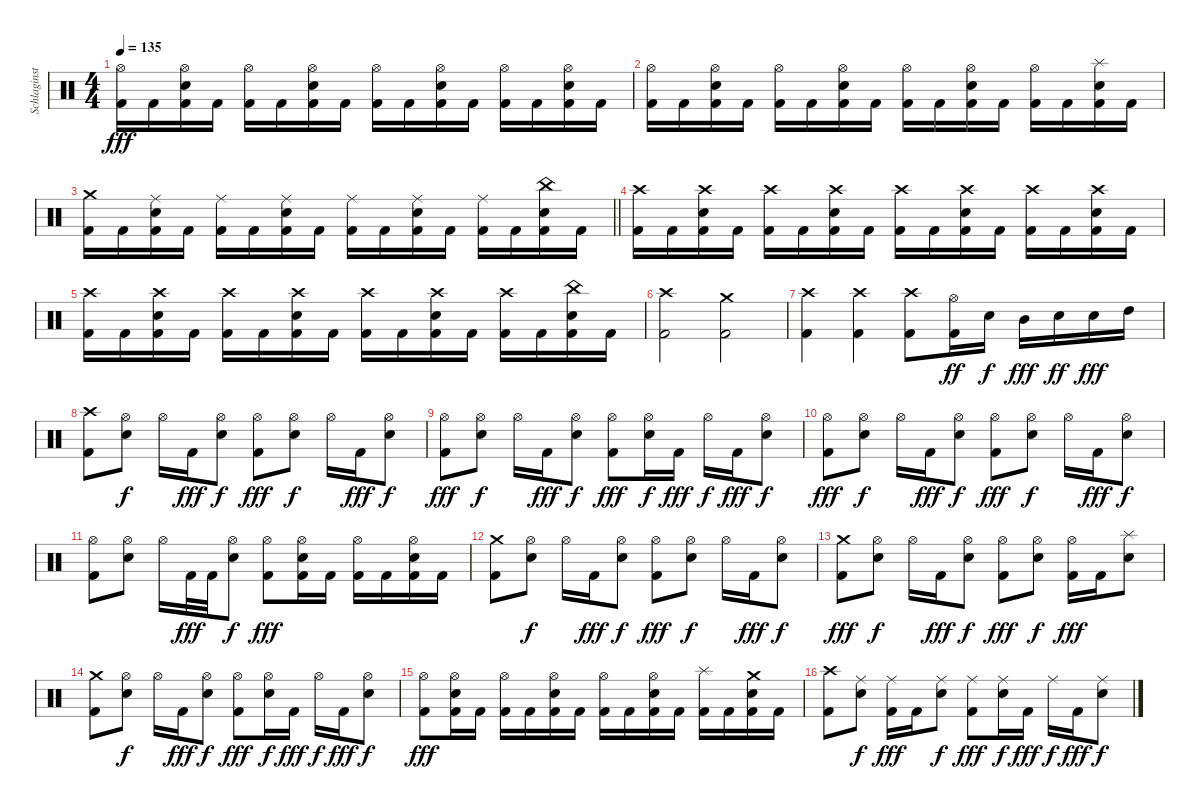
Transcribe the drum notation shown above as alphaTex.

\track ("Schlaginstrumente - Auswahl" "Schlaginst") {instrument percussion}
\staff {score}
\articulation defaults
\ts (4 4)
\tempo 135
\clef neutral
\ks c
("Hi-Hat (open)" "Kick (hit) 2").16{dy fff} "Kick (hit) 2".16 ("Hi-Hat (open)" "Snare (hit) 2" "Kick (hit) 2").16 "Kick (hit) 2".16 ("Hi-Hat (open)" "Kick (hit) 2").16 "Kick (hit) 2".16 ("Hi-Hat (open)" "Snare (hit) 2" "Kick (hit) 2").16 "Kick (hit) 2".16 ("Hi-Hat (open)" "Kick (hit) 2").16 "Kick (hit) 2".16 ("Hi-Hat (open)" "Snare (hit) 2" "Kick (hit) 2").16 "Kick (hit) 2".16 ("Hi-Hat (open)" "Kick (hit) 2").16 "Kick (hit) 2".16 ("Hi-Hat (open)" "Snare (hit) 2" "Kick (hit) 2").16 "Kick (hit) 2".16 |
("Hi-Hat (open)" "Kick (hit) 2").16 "Kick (hit) 2".16 ("Hi-Hat (open)" "Snare (hit) 2" "Kick (hit) 2").16 "Kick (hit) 2".16 ("Hi-Hat (open)" "Kick (hit) 2").16 "Kick (hit) 2".16 ("Hi-Hat (open)" "Snare (hit) 2" "Kick (hit) 2").16 "Kick (hit) 2".16 ("Hi-Hat (open)" "Kick (hit) 2").16 "Kick (hit) 2".16 ("Hi-Hat (open)" "Snare (hit) 2" "Kick (hit) 2").16 "Kick (hit) 2".16 ("Hi-Hat (open)" "Kick (hit) 2").16 "Kick (hit) 2".16 ("Splash (hit)" "Snare (hit) 2" "Kick (hit) 2").16 "Kick (hit) 2".16 |
\barLineRight lightlight
("Crash medium (hit)" "Kick (hit) 2").16 "Kick (hit) 2".16 ("Ride (middle)" "Snare (hit) 2" "Kick (hit) 2").16 "Kick (hit) 2".16 ("Ride (middle)" "Kick (hit) 2").16 "Kick (hit) 2".16 ("Ride (middle)" "Snare (hit) 2" "Kick (hit) 2").16 "Kick (hit) 2".16 ("Ride (middle)" "Kick (hit) 2").16 "Kick (hit) 2".16 ("Ride (middle)" "Snare (hit) 2" "Kick (hit) 2").16 "Kick (hit) 2".16 ("Ride (middle)" "Kick (hit) 2").16 "Kick (hit) 2".16 ("China (hit)" "Snare (hit) 2" "Kick (hit) 2").16 "Kick (hit) 2".16 |
("Crash high (hit)" "Kick (hit) 2").16 "Kick (hit) 2".16 ("Crash high (hit)" "Snare (hit) 2" "Kick (hit) 2").16 "Kick (hit) 2".16 ("Crash high (hit)" "Kick (hit) 2").16 "Kick (hit) 2".16 ("Crash high (hit)" "Snare (hit) 2" "Kick (hit) 2").16 "Kick (hit) 2".16 ("Crash high (hit)" "Kick (hit) 2").16 "Kick (hit) 2".16 ("Crash high (hit)" "Snare (hit) 2" "Kick (hit) 2").16 "Kick (hit) 2".16 ("Crash high (hit)" "Kick (hit) 2").16 "Kick (hit) 2".16 ("Crash high (hit)" "Snare (hit) 2" "Kick (hit) 2").16 "Kick (hit) 2".16 |
("Crash high (hit)" "Kick (hit) 2").16 "Kick (hit) 2".16 ("Crash high (hit)" "Snare (hit) 2" "Kick (hit) 2").16 "Kick (hit) 2".16 ("Crash high (hit)" "Kick (hit) 2").16 "Kick (hit) 2".16 ("Crash high (hit)" "Snare (hit) 2" "Kick (hit) 2").16 "Kick (hit) 2".16 ("Crash high (hit)" "Kick (hit) 2").16 "Kick (hit) 2".16 ("Crash high (hit)" "Snare (hit) 2" "Kick (hit) 2").16 "Kick (hit) 2".16 ("Crash high (hit)" "Kick (hit) 2").16 "Kick (hit) 2".16 ("China (hit)" "Snare (hit) 2" "Kick (hit) 2").16 "Kick (hit) 2".16 |
("Crash high (hit)" "Kick (hit) 2").2 ("Crash medium (hit)" "Kick (hit) 2").2 |
("Crash high (hit)" "Kick (hit) 2").4 ("Crash high (hit)" "Kick (hit) 2").4 ("Crash high (hit)" "Kick (hit) 2").8 ("Hi-Hat (open)" "Kick (hit) 2").16{dy ff} "Snare (hit) 2".16{dy f} "Mid Tom (hit)".16{dy fff} "Snare (hit) 2".16{dy ff} "Snare (hit) 2".16{dy fff} "High Tom (hit)".16 |
("Crash high (hit)" "Kick (hit) 2").8 ("Hi-Hat (open)" "Snare (hit) 2").8{dy f} "Hi-Hat (open)".16 "Kick (hit) 2".16{dy fff} ("Hi-Hat (open)" "Snare (hit) 2").8{dy f} ("Hi-Hat (open)" "Kick (hit) 2").8{dy fff} ("Hi-Hat (open)" "Snare (hit) 2").8{dy f} "Hi-Hat (open)".16 "Kick (hit) 2".16{dy fff} ("Hi-Hat (open)" "Snare (hit) 2").8{dy f} |
("Hi-Hat (open)" "Kick (hit) 2").8{dy fff} ("Hi-Hat (open)" "Snare (hit) 2").8{dy f} "Hi-Hat (open)".16 "Kick (hit) 2".16{dy fff} ("Hi-Hat (open)" "Snare (hit) 2").8{dy f} ("Hi-Hat (open)" "Kick (hit) 2").8{dy fff} ("Hi-Hat (open)" "Snare (hit) 2").16{dy f} "Kick (hit) 2".16{dy fff} "Hi-Hat (open)".16{dy f} "Kick (hit) 2".16{dy fff} ("Hi-Hat (open)" "Snare (hit) 2").8{dy f} |
("Hi-Hat (open)" "Kick (hit) 2").8{dy fff} ("Hi-Hat (open)" "Snare (hit) 2").8{dy f} "Hi-Hat (open)".16 "Kick (hit) 2".16{dy fff} ("Hi-Hat (open)" "Snare (hit) 2").8{dy f} ("Hi-Hat (open)" "Kick (hit) 2").8{dy fff} ("Hi-Hat (open)" "Snare (hit) 2").8{dy f} "Hi-Hat (open)".16 "Kick (hit) 2".16{dy fff} ("Hi-Hat (open)" "Snare (hit) 2").8{dy f} |
("Hi-Hat (open)" "Kick (hit) 2").8 ("Hi-Hat (open)" "Snare (hit) 2").8 "Hi-Hat (open)".16 "Kick (hit) 2".32{dy fff} "Kick (hit) 2".32 ("Hi-Hat (open)" "Snare (hit) 2").8{dy f} ("Hi-Hat (open)" "Kick (hit) 2").8{dy fff} ("Hi-Hat (open)" "Snare (hit) 2" "Kick (hit) 2").16 "Kick (hit) 2".16 ("Hi-Hat (open)" "Kick (hit) 2").16 "Kick (hit) 2".16 ("Hi-Hat (open)" "Snare (hit) 2" "Kick (hit) 2").16 "Kick (hit) 2".16 |
("Crash medium (hit)" "Kick (hit) 2").8 ("Hi-Hat (open)" "Snare (hit) 2").8{dy f} "Hi-Hat (open)".16 "Kick (hit) 2".16{dy fff} ("Hi-Hat (open)" "Snare (hit) 2").8{dy f} ("Hi-Hat (open)" "Kick (hit) 2").8{dy fff} ("Hi-Hat (open)" "Snare (hit) 2").8{dy f} "Hi-Hat (open)".16 "Kick (hit) 2".16{dy fff} ("Hi-Hat (open)" "Snare (hit) 2").8{dy f} |
("Crash medium (hit)" "Kick (hit) 2").8{dy fff} ("Hi-Hat (open)" "Snare (hit) 2").8{dy f} "Hi-Hat (open)".16 "Kick (hit) 2".16{dy fff} ("Hi-Hat (open)" "Snare (hit) 2").8{dy f} ("Hi-Hat (open)" "Kick (hit) 2").8{dy fff} ("Hi-Hat (open)" "Snare (hit) 2").8{dy f} ("Hi-Hat (open)" "Kick (hit) 2").16{dy fff} "Kick (hit) 2".16 ("Splash (hit)" "Snare (hit) 2").8 |
("Crash medium (hit)" "Kick (hit) 2").8 ("Hi-Hat (open)" "Snare (hit) 2").8{dy f} "Hi-Hat (open)".16 "Kick (hit) 2".16{dy fff} ("Hi-Hat (open)" "Snare (hit) 2").8{dy f} ("Hi-Hat (open)" "Kick (hit) 2").8{dy fff} ("Hi-Hat (open)" "Snare (hit) 2").16{dy f} "Kick (hit) 2".16{dy fff} "Hi-Hat (open)".16{dy f} "Kick (hit) 2".16{dy fff} ("Hi-Hat (open)" "Snare (hit) 2").8{dy f} |
("Hi-Hat (open)" "Kick (hit) 2").8{dy fff} ("Hi-Hat (open)" "Snare (hit) 2" "Kick (hit) 2").16 "Kick (hit) 2".16 ("Hi-Hat (open)" "Kick (hit) 2").16 "Kick (hit) 2".16 ("Hi-Hat (open)" "Snare (hit) 2" "Kick (hit) 2").16 "Kick (hit) 2".16 ("Hi-Hat (open)" "Kick (hit) 2").16 "Kick (hit) 2".16 ("Hi-Hat (open)" "Snare (hit) 2" "Kick (hit) 2").16 "Kick (hit) 2".16 ("Splash (hit)" "Kick (hit) 2").16 "Kick (hit) 2".16 ("Crash medium (hit)" "Snare (hit) 2" "Kick (hit) 2").16 "Kick (hit) 2".16 |
("Crash high (hit)" "Kick (hit) 2").8 ("Ride (middle)" "Snare (hit) 2").8{dy f} ("Ride (middle)" "Kick (hit) 2").16{dy fff} "Kick (hit) 2".16 ("Ride (middle)" "Snare (hit) 2").8{dy f} ("Ride (middle)" "Kick (hit) 2").8{dy fff} ("Ride (middle)" "Snare (hit) 2").16{dy f} "Kick (hit) 2".16{dy fff} "Ride (middle)".16{dy f} "Kick (hit) 2".16{dy fff} ("Ride (middle)" "Snare (hit) 2").8{dy f}
